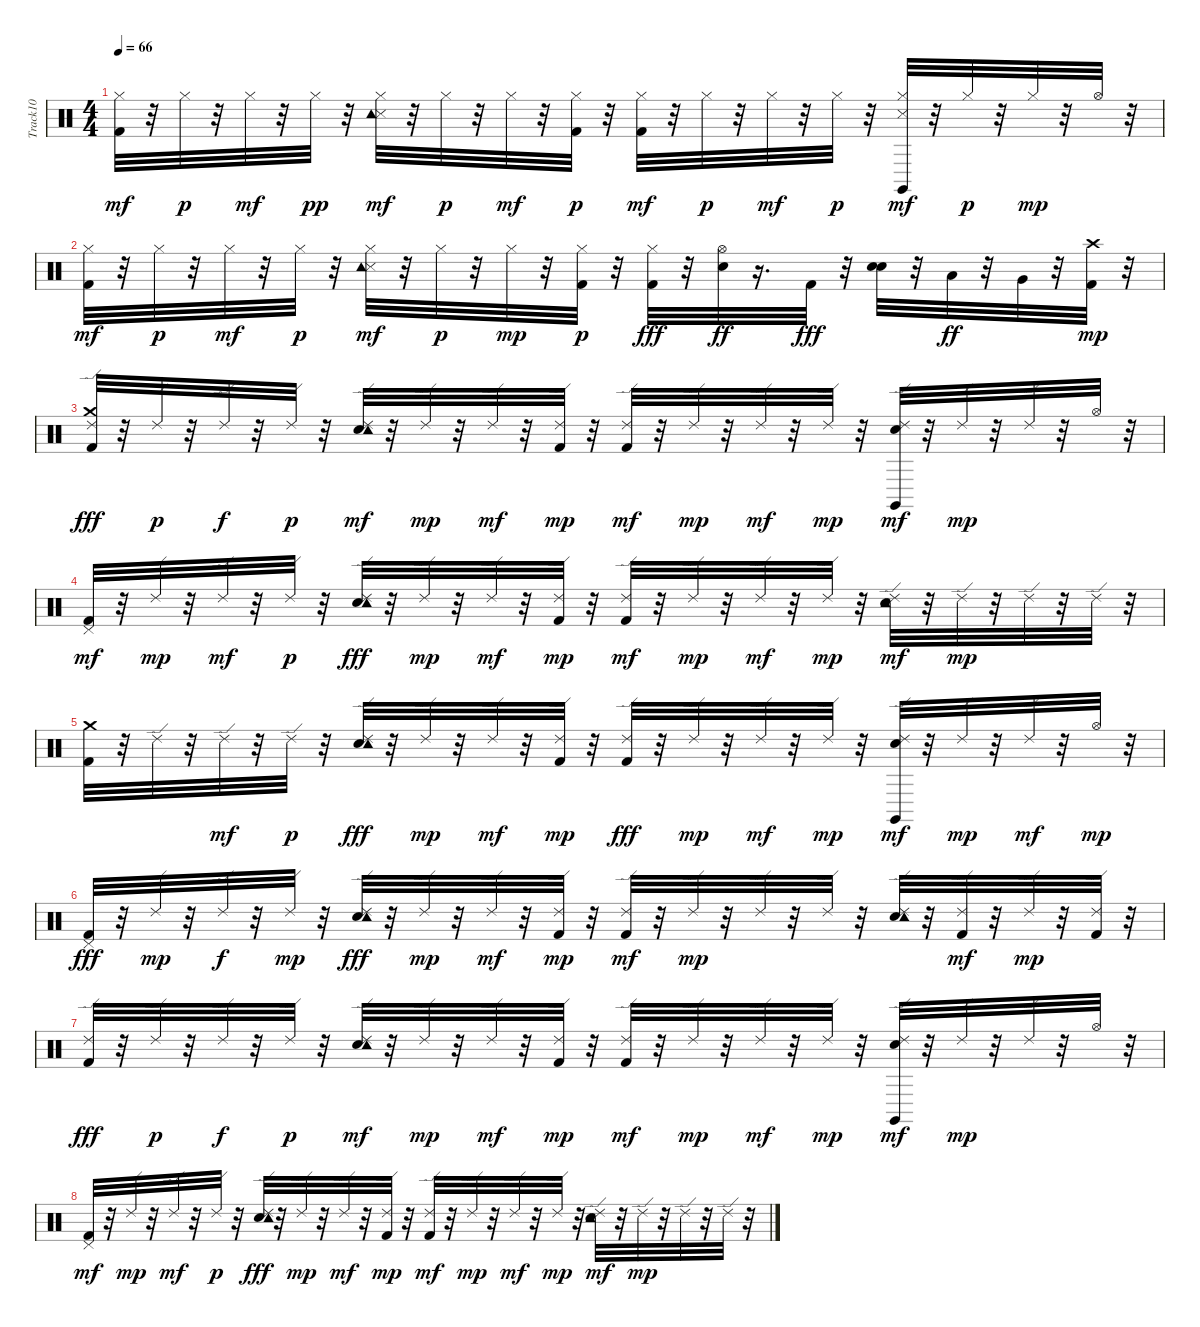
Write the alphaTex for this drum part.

\track ("Track10" "Track10") {instrument percussion}
\staff {score}
\articulation defaults
\ts (4 4)
\tempo 66
\clef neutral
\ks c
("Kick (hit) 2" "Hi-Hat (closed)").32{dy mf} r.32 "Hi-Hat (closed)".32{dy p} r.32 "Hi-Hat (closed)".32{dy mf} r.32 "Hi-Hat (closed)".32{dy pp} r.32 ("Snare (side stick) 3" "Tambourine (hit)" "Hi-Hat (closed)").32{dy mf} r.32 "Hi-Hat (closed)".32{dy p} r.32 "Hi-Hat (closed)".32{dy mf} r.32 ("Kick (hit) 2" "Hi-Hat (closed)").32{dy p} r.32 ("Kick (hit) 2" "Hi-Hat (closed)").32{dy mf} r.32 "Hi-Hat (closed)".32{dy p} r.32 "Hi-Hat (closed)".32{dy mf} r.32 "Hi-Hat (closed)".32{dy p} r.32 ("Snare (side stick) 3" "Claves (hit)" "Hi-Hat (closed)").32{dy mf} r.32 "Hi-Hat (closed)".32{dy p} r.32 "Hi-Hat (closed)".32{dy mp} r.32 "Hi-Hat (open)".32 r.32 |
("Kick (hit) 2" "Hi-Hat (closed)").32{dy mf} r.32 "Hi-Hat (closed)".32{dy p} r.32 "Hi-Hat (closed)".32{dy mf} r.32 "Hi-Hat (closed)".32{dy p} r.32 ("Snare (side stick) 3" "Tambourine (hit)" "Hi-Hat (closed)").32{dy mf} r.32 "Hi-Hat (closed)".32{dy p} r.32 "Hi-Hat (closed)".32{dy mp} r.32 ("Kick (hit) 2" "Hi-Hat (closed)").32{dy p} r.32 ("Kick (hit) 2" "Hi-Hat (closed)").32{dy fff} r.32 ("Snare (hit) 2" "Hi-Hat (open)").32{dy ff} r.16{d} "Kick (hit) 2".32{dy fff} r.32 ("Snare (hit) 2" "Snare (hit) 2").32 r.32 "Low Tom (hit)".32{dy ff} r.32 "Very Low Tom (hit)".32 r.32 ("Kick (hit) 2" "Crash high (hit)").32{dy mp} r.32 |
("Crash medium (hit)" "Kick (hit) 2" "Ride (edge) 2").32{dy fff} r.32 "Ride (edge) 2".32{dy p} r.32 "Ride (edge) 2".32{dy f} r.32 "Ride (edge) 2".32{dy p} r.32 ("Snare (hit) 2" "Ride (edge) 2" "Tambourine (hit)").32{dy mf} r.32 "Ride (edge) 2".32{dy mp} r.32 "Ride (edge) 2".32{dy mf} r.32 ("Kick (hit) 2" "Ride (edge) 2").32{dy mp} r.32 ("Kick (hit) 2" "Ride (edge) 2").32{dy mf} r.32 "Ride (edge) 2".32{dy mp} r.32 "Ride (edge) 2".32{dy mf} r.32 "Ride (edge) 2".32{dy mp} r.32 ("Snare (hit) 2" "Ride (edge) 2" "Claves (hit)").32{dy mf} r.32 "Ride (edge) 2".32{dy mp} r.32 "Ride (edge) 2".32 r.32 "Hi-Hat (open)".32 r.32 |
("Kick (hit) 2" "Pedal Hi-Hat (hit)").32{dy mf} r.32 "Ride (edge) 2".32{dy mp} r.32 "Ride (edge) 2".32{dy mf} r.32 "Ride (edge) 2".32{dy p} r.32 ("Snare (hit) 2" "Ride (edge) 2" "Tambourine (hit)").32{dy fff} r.32 "Ride (edge) 2".32{dy mp} r.32 "Ride (edge) 2".32{dy mf} r.32 ("Kick (hit) 2" "Ride (edge) 2").32{dy mp} r.32 ("Kick (hit) 2" "Ride (edge) 2").32{dy mf} r.32 "Ride (edge) 2".32{dy mp} r.32 "Ride (edge) 2".32{dy mf} r.32 "Ride (edge) 2".32{dy mp} r.32 ("Snare (hit) 2" "Ride (edge) 2" "Tambourine (hit)").32{dy mf} r.32 "Ride (edge) 2".32{dy mp} r.32 "Ride (edge) 2".32 r.32 "Ride (edge) 2".32 r.32 |
("Kick (hit) 2" "Crash medium (hit)").32 r.32 "Ride (edge) 2".32 r.32 "Ride (edge) 2".32{dy mf} r.32 "Ride (edge) 2".32{dy p} r.32 ("Snare (hit) 2" "Ride (edge) 2" "Tambourine (hit)").32{dy fff} r.32 "Ride (edge) 2".32{dy mp} r.32 "Ride (edge) 2".32{dy mf} r.32 ("Kick (hit) 2" "Ride (edge) 2").32{dy mp} r.32 ("Kick (hit) 2" "Ride (edge) 2").32{dy fff} r.32 "Ride (edge) 2".32{dy mp} r.32 "Ride (edge) 2".32{dy mf} r.32 "Ride (edge) 2".32{dy mp} r.32 ("Snare (hit) 2" "Ride (edge) 2" "Claves (hit)").32{dy mf} r.32 "Ride (edge) 2".32{dy mp} r.32 "Ride (edge) 2".32{dy mf} r.32 "Hi-Hat (open)".32{dy mp} r.32 |
("Kick (hit) 2" "Pedal Hi-Hat (hit)").32{dy fff} r.32 "Ride (edge) 2".32{dy mp} r.32 "Ride (edge) 2".32{dy f} r.32 "Ride (edge) 2".32{dy mp} r.32 ("Snare (hit) 2" "Ride (edge) 2" "Tambourine (hit)").32{dy fff} r.32 "Ride (edge) 2".32{dy mp} r.32 "Ride (edge) 2".32{dy mf} r.32 ("Kick (hit) 2" "Ride (edge) 2").32{dy mp} r.32 ("Kick (hit) 2" "Ride (edge) 2").32{dy mf} r.32 "Ride (edge) 2".32{dy mp} r.32 "Ride (edge) 2".32 r.32 "Ride (edge) 2".32 r.32 ("Snare (hit) 2" "Ride (edge) 2" "Tambourine (hit)").32 r.32 ("Ride (edge) 2" "Kick (hit) 2").32{dy mf} r.32 "Ride (edge) 2".32{dy mp} r.32 ("Ride (edge) 2" "Kick (hit) 2").32 r.32 |
("Kick (hit) 2" "Ride (edge) 2").32{dy fff} r.32 "Ride (edge) 2".32{dy p} r.32 "Ride (edge) 2".32{dy f} r.32 "Ride (edge) 2".32{dy p} r.32 ("Snare (hit) 2" "Ride (edge) 2" "Tambourine (hit)").32{dy mf} r.32 "Ride (edge) 2".32{dy mp} r.32 "Ride (edge) 2".32{dy mf} r.32 ("Kick (hit) 2" "Ride (edge) 2").32{dy mp} r.32 ("Kick (hit) 2" "Ride (edge) 2").32{dy mf} r.32 "Ride (edge) 2".32{dy mp} r.32 "Ride (edge) 2".32{dy mf} r.32 "Ride (edge) 2".32{dy mp} r.32 ("Snare (hit) 2" "Ride (edge) 2" "Claves (hit)").32{dy mf} r.32 "Ride (edge) 2".32{dy mp} r.32 "Ride (edge) 2".32 r.32 "Hi-Hat (open)".32 r.32 |
("Kick (hit) 2" "Pedal Hi-Hat (hit)").32{dy mf} r.32 "Ride (edge) 2".32{dy mp} r.32 "Ride (edge) 2".32{dy mf} r.32 "Ride (edge) 2".32{dy p} r.32 ("Snare (hit) 2" "Ride (edge) 2" "Tambourine (hit)").32{dy fff} r.32 "Ride (edge) 2".32{dy mp} r.32 "Ride (edge) 2".32{dy mf} r.32 ("Kick (hit) 2" "Ride (edge) 2").32{dy mp} r.32 ("Kick (hit) 2" "Ride (edge) 2").32{dy mf} r.32 "Ride (edge) 2".32{dy mp} r.32 "Ride (edge) 2".32{dy mf} r.32 "Ride (edge) 2".32{dy mp} r.32 ("Snare (hit) 2" "Ride (edge) 2" "Tambourine (hit)").32{dy mf} r.32 "Ride (edge) 2".32{dy mp} r.32 "Ride (edge) 2".32 r.32 "Ride (edge) 2".32 r.32
